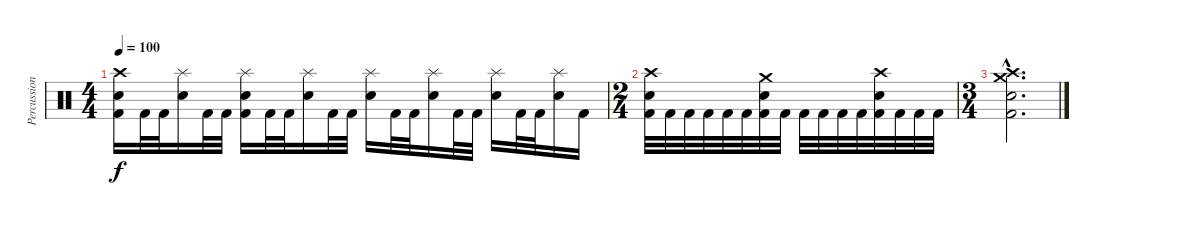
\track ("Percussion" "Percussion") {instrument percussion}
\staff {score}
\articulation defaults
\ts (4 4)
\tempo 100
\clef neutral
\ks c
("Crash high (hit)" "Electric Snare (hit)" "Kick (hit) 2").16{dy f} "Kick (hit) 2".32 "Kick (hit) 2".32 ("Splash (hit)" "Electric Snare (hit)").16 "Kick (hit) 2".32 "Kick (hit) 2".32 ("Splash (hit)" "Electric Snare (hit)" "Kick (hit) 2").16 "Kick (hit) 2".32 "Kick (hit) 2".32 ("Splash (hit)" "Electric Snare (hit)").16 "Kick (hit) 2".32 "Kick (hit) 2".32 ("Splash (hit)" "Electric Snare (hit)").16 "Kick (hit) 2".32 "Kick (hit) 2".32 ("Splash (hit)" "Electric Snare (hit)").16 "Kick (hit) 2".32 "Kick (hit) 2".32 ("Splash (hit)" "Electric Snare (hit)").16 "Kick (hit) 2".32 "Kick (hit) 2".32 ("Splash (hit)" "Electric Snare (hit)").16 "Kick (hit) 2".16 |
\ts (2 4)
("Crash high (hit)" "Electric Snare (hit)" "Kick (hit) 2").32 "Kick (hit) 2".32 "Kick (hit) 2".32 "Kick (hit) 2".32 "Kick (hit) 2".32 "Kick (hit) 2".32 ("Crash medium (hit)" "Electric Snare (hit)" "Kick (hit) 2").32 "Kick (hit) 2".32 "Kick (hit) 2".32 "Kick (hit) 2".32 "Kick (hit) 2".32 "Kick (hit) 2".32 ("Crash high (hit)" "Electric Snare (hit)" "Kick (hit) 2").32 "Kick (hit) 2".32 "Kick (hit) 2".32 "Kick (hit) 2".32 |
\ts (3 4)
("Crash medium (hit)"{hac} "Crash high (hit)"{hac} "Electric Snare (hit)"{hac} "Kick (hit) 2"{hac}).2{d}
